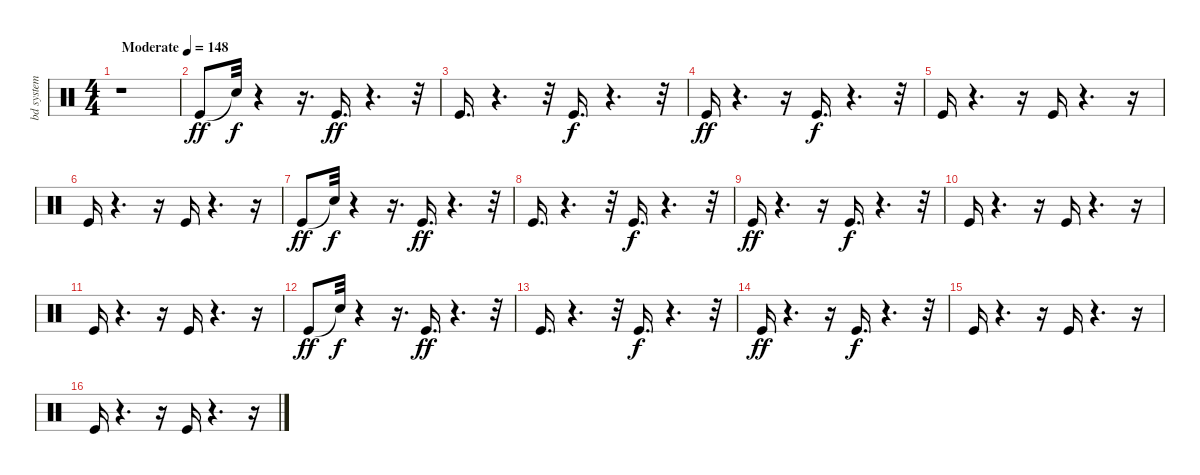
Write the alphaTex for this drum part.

\track ("bd system kits      " "bd system ") {instrument percussion}
\staff {score}
\articulation defaults
\ts (4 4)
\tempo (148 "Moderate")
\clef neutral
\ks c
r.1{dy ff} |
"Kick (hit)".8 "Snare (hit)"{t}.32{dy f} r.4 r.16{d} "Kick (hit)".16{d dy ff} r.4{d} r.32 |
"Kick (hit)".16{d} r.4{d} r.32 "Kick (hit)".16{d dy f} r.4{d} r.32 |
"Kick (hit)".16{dy ff} r.4{d} r.16 "Kick (hit)".16{d dy f} r.4{d} r.32 |
"Kick (hit)".16 r.4{d} r.16 "Kick (hit)".16 r.4{d} r.16 |
"Kick (hit)".16 r.4{d} r.16 "Kick (hit)".16 r.4{d} r.16 |
"Kick (hit)".8{dy ff} "Snare (hit)"{t}.32{dy f} r.4 r.16{d} "Kick (hit)".16{d dy ff} r.4{d} r.32 |
"Kick (hit)".16{d} r.4{d} r.32 "Kick (hit)".16{d dy f} r.4{d} r.32 |
"Kick (hit)".16{dy ff} r.4{d} r.16 "Kick (hit)".16{d dy f} r.4{d} r.32 |
"Kick (hit)".16 r.4{d} r.16 "Kick (hit)".16 r.4{d} r.16 |
"Kick (hit)".16 r.4{d} r.16 "Kick (hit)".16 r.4{d} r.16 |
"Kick (hit)".8{dy ff} "Snare (hit)"{t}.32{dy f} r.4 r.16{d} "Kick (hit)".16{d dy ff} r.4{d} r.32 |
"Kick (hit)".16{d} r.4{d} r.32 "Kick (hit)".16{d dy f} r.4{d} r.32 |
"Kick (hit)".16{dy ff} r.4{d} r.16 "Kick (hit)".16{d dy f} r.4{d} r.32 |
"Kick (hit)".16 r.4{d} r.16 "Kick (hit)".16 r.4{d} r.16 |
"Kick (hit)".16 r.4{d} r.16 "Kick (hit)".16 r.4{d} r.16
